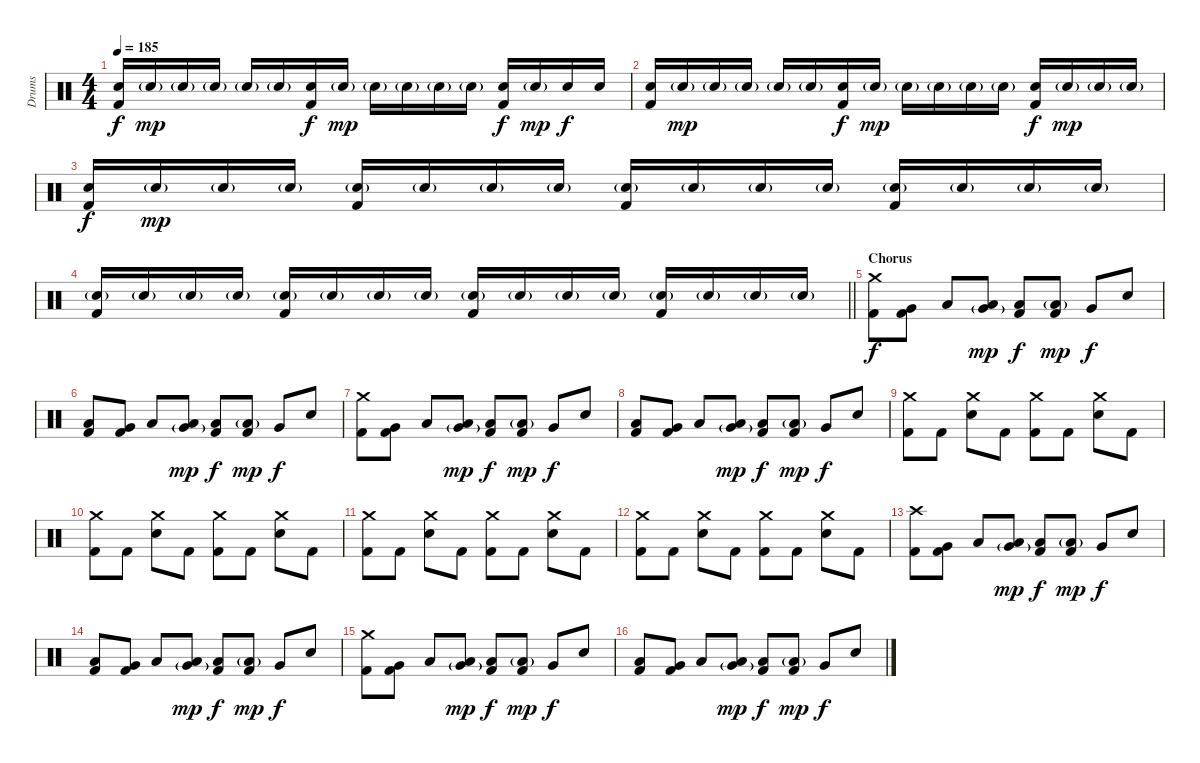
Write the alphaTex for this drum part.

\track ("Drums" "Drums") {instrument percussion}
\staff {score}
\articulation defaults
\ts (4 4)
\tempo 185
\clef neutral
\ks c
("Electric Snare (hit)" "Kick (hit) 2").16{dy f} "Electric Snare (hit)"{g}.16{dy mp} "Electric Snare (hit)"{g}.16 "Electric Snare (hit)"{g}.16 "Electric Snare (hit)"{g}.16 "Electric Snare (hit)"{g}.16 ("Electric Snare (hit)" "Kick (hit) 2").16{dy f} "Electric Snare (hit)"{g}.16{dy mp} "Electric Snare (hit)"{g}.16 "Electric Snare (hit)"{g}.16 "Electric Snare (hit)"{g}.16 "Electric Snare (hit)"{g}.16 ("Electric Snare (hit)" "Kick (hit) 2").16{dy f} "Electric Snare (hit)"{g}.16{dy mp} "Electric Snare (hit)".16{dy f} "Electric Snare (hit)".16 |
("Electric Snare (hit)" "Kick (hit) 2").16 "Electric Snare (hit)"{g}.16{dy mp} "Electric Snare (hit)"{g}.16 "Electric Snare (hit)"{g}.16 "Electric Snare (hit)"{g}.16 "Electric Snare (hit)"{g}.16 ("Electric Snare (hit)" "Kick (hit) 2").16{dy f} "Electric Snare (hit)"{g}.16{dy mp} "Electric Snare (hit)"{g}.16 "Electric Snare (hit)"{g}.16 "Electric Snare (hit)"{g}.16 "Electric Snare (hit)"{g}.16 ("Electric Snare (hit)" "Kick (hit) 2").16{dy f} "Electric Snare (hit)"{g}.16{dy mp} "Electric Snare (hit)"{g}.16 "Electric Snare (hit)"{g}.16 |
("Electric Snare (hit)" "Kick (hit) 2").16{dy f} "Electric Snare (hit)"{g}.16{dy mp volume 16} "Electric Snare (hit)"{g}.16 "Electric Snare (hit)"{g}.16 ("Electric Snare (hit)"{g} "Kick (hit) 2").16 "Electric Snare (hit)"{g}.16 "Electric Snare (hit)"{g}.16 "Electric Snare (hit)"{g}.16 ("Electric Snare (hit)"{g} "Kick (hit) 2").16 "Electric Snare (hit)"{g}.16 "Electric Snare (hit)"{g}.16 "Electric Snare (hit)"{g}.16 ("Electric Snare (hit)"{g} "Kick (hit) 2").16 "Electric Snare (hit)"{g}.16 "Electric Snare (hit)"{g}.16 "Electric Snare (hit)"{g}.16 |
\barLineRight lightlight
("Electric Snare (hit)"{g} "Kick (hit) 2").16 "Electric Snare (hit)"{g}.16 "Electric Snare (hit)"{g}.16 "Electric Snare (hit)"{g}.16 ("Electric Snare (hit)"{g} "Kick (hit) 2").16 "Electric Snare (hit)"{g}.16 "Electric Snare (hit)"{g}.16 "Electric Snare (hit)"{g}.16 ("Electric Snare (hit)"{g} "Kick (hit) 2").16 "Electric Snare (hit)"{g}.16 "Electric Snare (hit)"{g}.16 "Electric Snare (hit)"{g}.16 ("Electric Snare (hit)"{g} "Kick (hit) 2").16 "Electric Snare (hit)"{g}.16 "Electric Snare (hit)"{g}.16 "Electric Snare (hit)"{g}.16 |
\section ("" "Chorus")
("Crash medium (hit)" "Kick (hit) 2").8{dy f volume 12} ("Very Low Tom (hit)" "Kick (hit) 2").8 "Low Floor Tom (hit)".8 ("Low Tom (hit)" "Very Low Tom (hit)"{g}).8{dy mp} ("Low Floor Tom (hit)" "Kick (hit) 2").8{dy f} ("Low Floor Tom (hit)"{g} "Kick (hit) 2").8{dy mp} "Very Low Tom (hit)".8{dy f} "Electric Snare (hit)".8 |
("Low Tom (hit)" "Kick (hit) 2").8 ("Very Low Tom (hit)" "Kick (hit) 2").8 "Low Floor Tom (hit)".8 ("Low Tom (hit)" "Very Low Tom (hit)"{g}).8{dy mp} ("Low Floor Tom (hit)" "Kick (hit) 2").8{dy f} ("Low Floor Tom (hit)"{g} "Kick (hit) 2").8{dy mp} "Very Low Tom (hit)".8{dy f} "Electric Snare (hit)".8 |
("Crash medium (hit)" "Kick (hit) 2").8 ("Very Low Tom (hit)" "Kick (hit) 2").8 "Low Floor Tom (hit)".8 ("Low Tom (hit)" "Very Low Tom (hit)"{g}).8{dy mp} ("Low Floor Tom (hit)" "Kick (hit) 2").8{dy f} ("Low Floor Tom (hit)"{g} "Kick (hit) 2").8{dy mp} "Very Low Tom (hit)".8{dy f} "Electric Snare (hit)".8 |
("Low Tom (hit)" "Kick (hit) 2").8 ("Very Low Tom (hit)" "Kick (hit) 2").8 "Low Floor Tom (hit)".8 ("Low Tom (hit)" "Very Low Tom (hit)"{g}).8{dy mp} ("Low Floor Tom (hit)" "Kick (hit) 2").8{dy f} ("Low Floor Tom (hit)"{g} "Kick (hit) 2").8{dy mp} "Very Low Tom (hit)".8{dy f} "Electric Snare (hit)".8 |
("Crash medium (hit)" "Kick (hit) 2").8 "Kick (hit) 2".8 ("Crash medium (hit)" "Electric Snare (hit)").8 "Kick (hit) 2".8 ("Crash medium (hit)" "Kick (hit) 2").8 "Kick (hit) 2".8 ("Crash medium (hit)" "Electric Snare (hit)").8 "Kick (hit) 2".8 |
("Crash medium (hit)" "Kick (hit) 2").8 "Kick (hit) 2".8 ("Crash medium (hit)" "Electric Snare (hit)").8 "Kick (hit) 2".8 ("Crash medium (hit)" "Kick (hit) 2").8 "Kick (hit) 2".8 ("Crash medium (hit)" "Electric Snare (hit)").8 "Kick (hit) 2".8 |
("Crash medium (hit)" "Kick (hit) 2").8 "Kick (hit) 2".8 ("Crash medium (hit)" "Electric Snare (hit)").8 "Kick (hit) 2".8 ("Crash medium (hit)" "Kick (hit) 2").8 "Kick (hit) 2".8 ("Crash medium (hit)" "Electric Snare (hit)").8 "Kick (hit) 2".8 |
("Crash medium (hit)" "Kick (hit) 2").8 "Kick (hit) 2".8 ("Crash medium (hit)" "Electric Snare (hit)").8 "Kick (hit) 2".8 ("Crash medium (hit)" "Kick (hit) 2").8 "Kick (hit) 2".8 ("Crash medium (hit)" "Electric Snare (hit)").8 "Kick (hit) 2".8 |
("Crash high (hit)" "Kick (hit) 2").8 ("Very Low Tom (hit)" "Kick (hit) 2").8 "Low Floor Tom (hit)".8 ("Low Tom (hit)" "Very Low Tom (hit)"{g}).8{dy mp} ("Low Floor Tom (hit)" "Kick (hit) 2").8{dy f} ("Low Floor Tom (hit)"{g} "Kick (hit) 2").8{dy mp} "Very Low Tom (hit)".8{dy f} "Electric Snare (hit)".8 |
("Low Tom (hit)" "Kick (hit) 2").8 ("Very Low Tom (hit)" "Kick (hit) 2").8 "Low Floor Tom (hit)".8 ("Low Tom (hit)" "Very Low Tom (hit)"{g}).8{dy mp} ("Low Floor Tom (hit)" "Kick (hit) 2").8{dy f} ("Low Floor Tom (hit)"{g} "Kick (hit) 2").8{dy mp} "Very Low Tom (hit)".8{dy f} "Electric Snare (hit)".8 |
("Crash medium (hit)" "Kick (hit) 2").8 ("Very Low Tom (hit)" "Kick (hit) 2").8 "Low Floor Tom (hit)".8 ("Low Tom (hit)" "Very Low Tom (hit)"{g}).8{dy mp} ("Low Floor Tom (hit)" "Kick (hit) 2").8{dy f} ("Low Floor Tom (hit)"{g} "Kick (hit) 2").8{dy mp} "Very Low Tom (hit)".8{dy f} "Electric Snare (hit)".8 |
("Low Tom (hit)" "Kick (hit) 2").8 ("Very Low Tom (hit)" "Kick (hit) 2").8 "Low Floor Tom (hit)".8 ("Low Tom (hit)" "Very Low Tom (hit)"{g}).8{dy mp} ("Low Floor Tom (hit)" "Kick (hit) 2").8{dy f} ("Low Floor Tom (hit)"{g} "Kick (hit) 2").8{dy mp} "Very Low Tom (hit)".8{dy f} "Electric Snare (hit)".8
